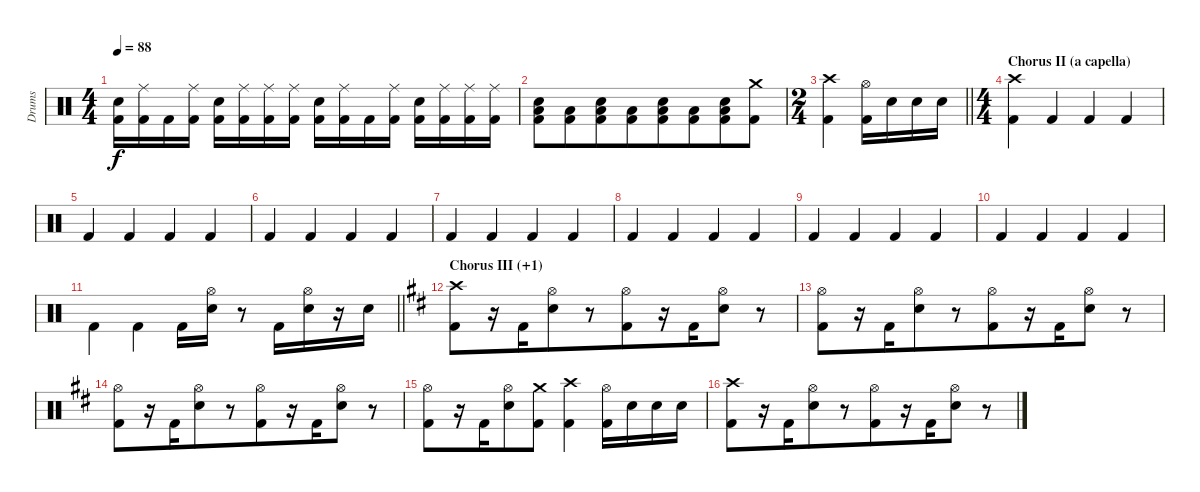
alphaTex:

\track ("Drums" "Drums") {instrument percussion}
\staff {score}
\articulation defaults
\ts (4 4)
\tempo 88
\clef neutral
\ks aminor
("Electric Snare (hit)" "Kick (hit) 2").16{dy f} ("Ride (middle)" "Kick (hit) 2").16 "Kick (hit) 2".16 ("Ride (middle)" "Kick (hit) 2").16 ("Electric Snare (hit)" "Kick (hit) 2").16{beam merge} ("Ride (middle)" "Kick (hit) 2").16 ("Ride (middle)" "Kick (hit) 2").16 ("Ride (middle)" "Kick (hit) 2").16 ("Electric Snare (hit)" "Kick (hit) 2").16{beam merge} ("Ride (middle)" "Kick (hit) 2").16{beam merge} "Kick (hit) 2".16 ("Ride (middle)" "Kick (hit) 2").16 ("Electric Snare (hit)" "Kick (hit) 2").16{beam merge} ("Ride (middle)" "Kick (hit) 2").16 ("Ride (middle)" "Kick (hit) 2").16{beam merge} ("Ride (middle)" "Kick (hit) 2").16 |
("Electric Snare (hit)" "Low Floor Tom (hit)" "Kick (hit) 2").8 ("Low Floor Tom (hit)" "Kick (hit) 2").8{beam merge} ("Electric Snare (hit)" "Low Floor Tom (hit)" "Kick (hit) 2").8{beam merge} ("Low Floor Tom (hit)" "Kick (hit) 2").8{beam merge} ("Electric Snare (hit)" "Low Floor Tom (hit)" "Kick (hit) 2").8{beam merge} ("Low Floor Tom (hit)" "Kick (hit) 2").8{beam merge} ("Electric Snare (hit)" "Low Floor Tom (hit)" "Kick (hit) 2").8 ("Crash medium (hit)" "Kick (hit) 2").8 |
\ts (2 4)
\barLineRight lightlight
("Crash high (hit)" "Kick (hit) 2").4{beam merge} ("Hi-Hat (open)" "Kick (hit) 2").16{beam merge} "Electric Snare (hit)".16 "Electric Snare (hit)".16{beam merge} "Electric Snare (hit)".16 |
\ts (4 4)
\section ("" "Chorus II (a capella)")
("Crash high (hit)" "Kick (hit) 2").4 "Kick (hit) 2".4{beam merge} "Kick (hit) 2".4 "Kick (hit) 2".4 |
"Kick (hit) 2".4{beam merge} "Kick (hit) 2".4{beam merge} "Kick (hit) 2".4 "Kick (hit) 2".4 |
"Kick (hit) 2".4{beam merge} "Kick (hit) 2".4{beam merge} "Kick (hit) 2".4 "Kick (hit) 2".4 |
"Kick (hit) 2".4{beam merge} "Kick (hit) 2".4{beam merge} "Kick (hit) 2".4 "Kick (hit) 2".4 |
"Kick (hit) 2".4{beam merge} "Kick (hit) 2".4{beam merge} "Kick (hit) 2".4 "Kick (hit) 2".4 |
"Kick (hit) 2".4{beam merge} "Kick (hit) 2".4{beam merge} "Kick (hit) 2".4 "Kick (hit) 2".4 |
"Kick (hit) 2".4{beam merge} "Kick (hit) 2".4{beam merge} "Kick (hit) 2".4 "Kick (hit) 2".4 |
\barLineRight lightlight "Kick (hit) 2".4{beam merge} "Kick (hit) 2".4{beam merge} "Kick (hit) 2".16
("Hi-Hat (open)" "Electric Snare (hit)").16 r.8{beam merge} "Kick (hit) 2".16 ("Hi-Hat (open)" "Electric Snare (hit)").16 r.16 "Electric Snare (hit)".16 |
\section ("" "Chorus III (+1)")
\ks bminor
("Crash high (hit)" "Kick (hit) 2").8 r.16 "Kick (hit) 2".16{beam merge} ("Hi-Hat (open)" "Electric Snare (hit)").8{beam merge} r.8 ("Hi-Hat (open)" "Kick (hit) 2").8{beam merge} r.16 "Kick (hit) 2".16{beam merge} ("Hi-Hat (open)" "Electric Snare (hit)").8{beam merge} r.8 |
("Hi-Hat (open)" "Kick (hit) 2").8 r.16 "Kick (hit) 2".16{beam merge} ("Hi-Hat (open)" "Electric Snare (hit)").8{beam merge} r.8 ("Hi-Hat (open)" "Kick (hit) 2").8{beam merge} r.16 "Kick (hit) 2".16{beam merge} ("Hi-Hat (open)" "Electric Snare (hit)").8{beam merge} r.8 |
("Hi-Hat (open)" "Kick (hit) 2").8 r.16 "Kick (hit) 2".16{beam merge} ("Hi-Hat (open)" "Electric Snare (hit)").8{beam merge} r.8 ("Hi-Hat (open)" "Kick (hit) 2").8{beam merge} r.16 "Kick (hit) 2".16{beam merge} ("Hi-Hat (open)" "Electric Snare (hit)").8{beam merge} r.8 |
("Hi-Hat (open)" "Kick (hit) 2").8 r.16 "Kick (hit) 2".16{beam merge} ("Hi-Hat (open)" "Electric Snare (hit)").8{beam merge} ("Crash medium (hit)" "Kick (hit) 2").8 ("Crash high (hit)" "Kick (hit) 2").4{beam merge} ("Hi-Hat (open)" "Kick (hit) 2").16{beam merge} "Electric Snare (hit)".16 "Electric Snare (hit)".16{beam merge} "Electric Snare (hit)".16 |
("Crash high (hit)" "Kick (hit) 2").8 r.16 "Kick (hit) 2".16{beam merge} ("Hi-Hat (open)" "Electric Snare (hit)").8{beam merge} r.8 ("Hi-Hat (open)" "Kick (hit) 2").8{beam merge} r.16 "Kick (hit) 2".16{beam merge} ("Hi-Hat (open)" "Electric Snare (hit)").8{beam merge} r.8
